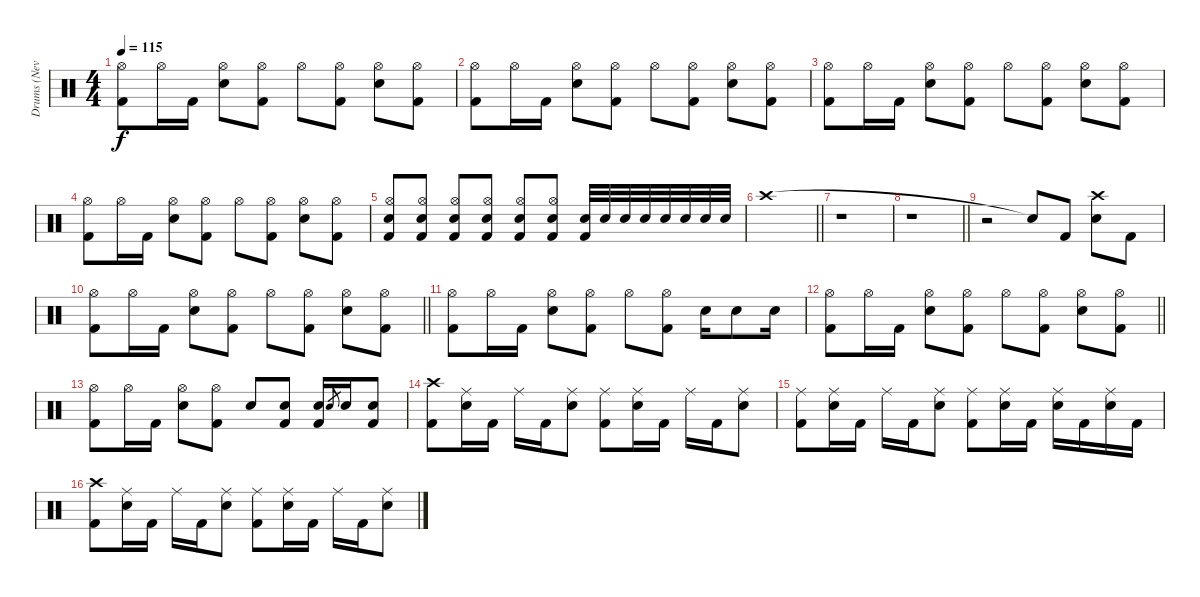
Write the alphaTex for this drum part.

\track ("Drums (Nevi)" "Drums (Nev") {instrument percussion}
\staff {score}
\articulation defaults
\ts (4 4)
\tempo 115
\clef neutral
\ks c
("Kick (hit) 2" "Hi-Hat (open)").8{dy f} "Hi-Hat (open)".16 "Kick (hit) 2".16 ("Snare (hit) 2" "Hi-Hat (open)").8 ("Kick (hit) 2" "Hi-Hat (open)").8 "Hi-Hat (open)".8 ("Kick (hit) 2" "Hi-Hat (open)").8 ("Snare (hit) 2" "Hi-Hat (open)").8 ("Kick (hit) 2" "Hi-Hat (open)").8 |
("Kick (hit) 2" "Hi-Hat (open)").8 "Hi-Hat (open)".16 "Kick (hit) 2".16 ("Snare (hit) 2" "Hi-Hat (open)").8 ("Kick (hit) 2" "Hi-Hat (open)").8 "Hi-Hat (open)".8 ("Kick (hit) 2" "Hi-Hat (open)").8 ("Snare (hit) 2" "Hi-Hat (open)").8 ("Kick (hit) 2" "Hi-Hat (open)").8 |
("Kick (hit) 2" "Hi-Hat (open)").8 "Hi-Hat (open)".16 "Kick (hit) 2".16 ("Snare (hit) 2" "Hi-Hat (open)").8 ("Kick (hit) 2" "Hi-Hat (open)").8 "Hi-Hat (open)".8 ("Kick (hit) 2" "Hi-Hat (open)").8 ("Snare (hit) 2" "Hi-Hat (open)").8 ("Kick (hit) 2" "Hi-Hat (open)").8 |
("Kick (hit) 2" "Hi-Hat (open)").8 "Hi-Hat (open)".16 "Kick (hit) 2".16 ("Snare (hit) 2" "Hi-Hat (open)").8 ("Kick (hit) 2" "Hi-Hat (open)").8 "Hi-Hat (open)".8 ("Kick (hit) 2" "Hi-Hat (open)").8 ("Snare (hit) 2" "Hi-Hat (open)").8 ("Kick (hit) 2" "Hi-Hat (open)").8 |
("Kick (hit) 2" "Snare (hit) 2" "Hi-Hat (open)").8 ("Kick (hit) 2" "Snare (hit) 2" "Hi-Hat (open)").8 ("Kick (hit) 2" "Snare (hit) 2" "Hi-Hat (open)").8 ("Kick (hit) 2" "Snare (hit) 2" "Hi-Hat (open)").8 ("Kick (hit) 2" "Snare (hit) 2" "Hi-Hat (open)").8 ("Kick (hit) 2" "Snare (hit) 2" "Hi-Hat (open)").8 ("Kick (hit) 2" "Snare (hit) 2").32 "Snare (hit) 2".32 "Snare (hit) 2".32 "Snare (hit) 2".32 "Snare (hit) 2".32 "Snare (hit) 2".32 "Snare (hit) 2".32 "Snare (hit) 2".32 |
\barLineRight lightlight "Crash high (hit)".1
|
r.1 |
\barLineRight lightlight
r.1 |
r.2 "Snare (hit)"{t}.8 "Kick (hit) 2".8 ("Snare (hit) 2" "Crash high (hit)").8 "Kick (hit) 2".8 |
\barLineRight lightlight
("Kick (hit) 2" "Hi-Hat (open)").8 "Hi-Hat (open)".16 "Kick (hit) 2".16 ("Snare (hit) 2" "Hi-Hat (open)").8 ("Kick (hit) 2" "Hi-Hat (open)").8 "Hi-Hat (open)".8 ("Kick (hit) 2" "Hi-Hat (open)").8 ("Snare (hit) 2" "Hi-Hat (open)").8 ("Kick (hit) 2" "Hi-Hat (open)").8 |
("Kick (hit) 2" "Hi-Hat (open)").8 "Hi-Hat (open)".16 "Kick (hit) 2".16 ("Snare (hit) 2" "Hi-Hat (open)").8 ("Kick (hit) 2" "Hi-Hat (open)").8 "Hi-Hat (open)".8 ("Kick (hit) 2" "Hi-Hat (open)").8 "Snare (hit) 2".16 "Snare (hit) 2".8 "Snare (hit) 2".16 |
\barLineRight lightlight
("Kick (hit) 2" "Hi-Hat (open)").8 "Hi-Hat (open)".16 "Kick (hit) 2".16 ("Snare (hit) 2" "Hi-Hat (open)").8 ("Kick (hit) 2" "Hi-Hat (open)").8 "Hi-Hat (open)".8 ("Kick (hit) 2" "Hi-Hat (open)").8 ("Snare (hit) 2" "Hi-Hat (open)").8 ("Kick (hit) 2" "Hi-Hat (open)").8 |
("Kick (hit) 2" "Hi-Hat (open)").8 "Hi-Hat (open)".16 "Kick (hit) 2".16 ("Snare (hit) 2" "Hi-Hat (open)").8 ("Kick (hit) 2" "Hi-Hat (open)").8 "Snare (hit) 2".8 ("Kick (hit) 2" "Snare (hit) 2").8 ("Kick (hit) 2" "Snare (hit) 2").16 "Snare (hit) 2".8{gr} "Snare (hit) 2".16 ("Kick (hit) 2" "Snare (hit) 2").8 |
("Kick (hit) 2" "Crash high (hit)").8 ("Snare (hit) 2" "Ride (middle)").16 "Kick (hit) 2".16 "Ride (middle)".16 "Kick (hit) 2".16 ("Snare (hit) 2" "Ride (middle)").8 ("Kick (hit) 2" "Ride (middle)").8 ("Snare (hit) 2" "Ride (middle)").16 "Kick (hit) 2".16 "Ride (middle)".16 "Kick (hit) 2".16 ("Snare (hit) 2" "Ride (middle)").8 |
("Kick (hit) 2" "Ride (middle)").8 ("Snare (hit) 2" "Ride (middle)").16 "Kick (hit) 2".16 "Ride (middle)".16 "Kick (hit) 2".16 ("Snare (hit) 2" "Ride (middle)").8 ("Kick (hit) 2" "Ride (middle)").8 ("Snare (hit) 2" "Ride (middle)").16 "Kick (hit) 2".16 ("Snare (hit) 2" "Ride (middle)").16 "Kick (hit) 2".16 ("Snare (hit) 2" "Ride (middle)").16 "Kick (hit) 2".16 |
("Kick (hit) 2" "Crash high (hit)").8 ("Snare (hit) 2" "Ride (middle)").16 "Kick (hit) 2".16 "Ride (middle)".16 "Kick (hit) 2".16 ("Snare (hit) 2" "Ride (middle)").8 ("Kick (hit) 2" "Ride (middle)").8 ("Snare (hit) 2" "Ride (middle)").16 "Kick (hit) 2".16 "Ride (middle)".16 "Kick (hit) 2".16 ("Snare (hit) 2" "Ride (middle)").8
